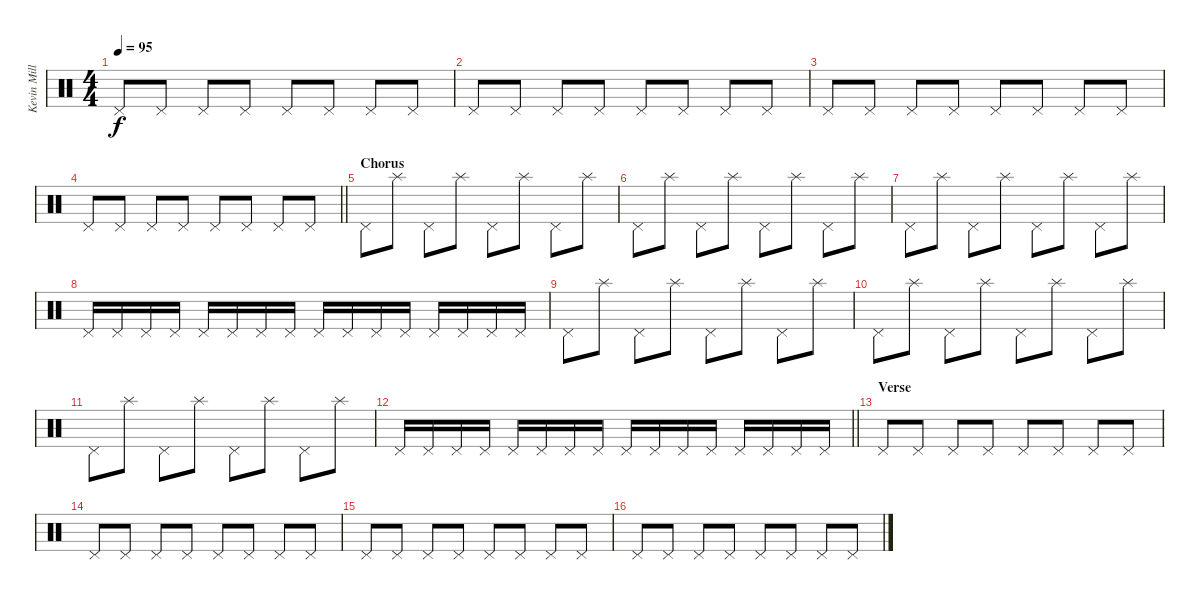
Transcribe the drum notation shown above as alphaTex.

\track ("Kevin Miller (Drums)" "Kevin Mill") {instrument percussion}
\staff {score}
\articulation defaults
\ts (4 4)
\tempo 95
\clef neutral
\ks c "Pedal Hi-Hat (hit)".8{dy f} "Pedal Hi-Hat (hit)".8 "Pedal Hi-Hat (hit)".8 "Pedal Hi-Hat (hit)".8 "Pedal Hi-Hat (hit)".8 "Pedal Hi-Hat (hit)".8 "Pedal Hi-Hat (hit)".8 "Pedal Hi-Hat (hit)".8
|
"Pedal Hi-Hat (hit)".8 "Pedal Hi-Hat (hit)".8 "Pedal Hi-Hat (hit)".8 "Pedal Hi-Hat (hit)".8 "Pedal Hi-Hat (hit)".8 "Pedal Hi-Hat (hit)".8 "Pedal Hi-Hat (hit)".8 "Pedal Hi-Hat (hit)".8 |
"Pedal Hi-Hat (hit)".8 "Pedal Hi-Hat (hit)".8 "Pedal Hi-Hat (hit)".8 "Pedal Hi-Hat (hit)".8 "Pedal Hi-Hat (hit)".8 "Pedal Hi-Hat (hit)".8 "Pedal Hi-Hat (hit)".8 "Pedal Hi-Hat (hit)".8 |
\barLineRight lightlight "Pedal Hi-Hat (hit)".8 "Pedal Hi-Hat (hit)".8 "Pedal Hi-Hat (hit)".8 "Pedal Hi-Hat (hit)".8 "Pedal Hi-Hat (hit)".8 "Pedal Hi-Hat (hit)".8 "Pedal Hi-Hat (hit)".8 "Pedal Hi-Hat (hit)".8
|
\section ("" "Chorus")
"Pedal Hi-Hat (hit)".8 "Splash (hit)".8 "Pedal Hi-Hat (hit)".8 "Splash (hit)".8 "Pedal Hi-Hat (hit)".8 "Splash (hit)".8 "Pedal Hi-Hat (hit)".8 "Splash (hit)".8 |
"Pedal Hi-Hat (hit)".8 "Splash (hit)".8 "Pedal Hi-Hat (hit)".8 "Splash (hit)".8 "Pedal Hi-Hat (hit)".8 "Splash (hit)".8 "Pedal Hi-Hat (hit)".8 "Splash (hit)".8 |
"Pedal Hi-Hat (hit)".8 "Splash (hit)".8 "Pedal Hi-Hat (hit)".8 "Splash (hit)".8 "Pedal Hi-Hat (hit)".8 "Splash (hit)".8 "Pedal Hi-Hat (hit)".8 "Splash (hit)".8 |
"Pedal Hi-Hat (hit)".16 "Pedal Hi-Hat (hit)".16 "Pedal Hi-Hat (hit)".16 "Pedal Hi-Hat (hit)".16 "Pedal Hi-Hat (hit)".16 "Pedal Hi-Hat (hit)".16 "Pedal Hi-Hat (hit)".16 "Pedal Hi-Hat (hit)".16 "Pedal Hi-Hat (hit)".16 "Pedal Hi-Hat (hit)".16 "Pedal Hi-Hat (hit)".16 "Pedal Hi-Hat (hit)".16 "Pedal Hi-Hat (hit)".16 "Pedal Hi-Hat (hit)".16 "Pedal Hi-Hat (hit)".16 "Pedal Hi-Hat (hit)".16 |
"Pedal Hi-Hat (hit)".8 "Splash (hit)".8 "Pedal Hi-Hat (hit)".8 "Splash (hit)".8 "Pedal Hi-Hat (hit)".8 "Splash (hit)".8 "Pedal Hi-Hat (hit)".8 "Splash (hit)".8 |
"Pedal Hi-Hat (hit)".8 "Splash (hit)".8 "Pedal Hi-Hat (hit)".8 "Splash (hit)".8 "Pedal Hi-Hat (hit)".8 "Splash (hit)".8 "Pedal Hi-Hat (hit)".8 "Splash (hit)".8 |
"Pedal Hi-Hat (hit)".8 "Splash (hit)".8 "Pedal Hi-Hat (hit)".8 "Splash (hit)".8 "Pedal Hi-Hat (hit)".8 "Splash (hit)".8 "Pedal Hi-Hat (hit)".8 "Splash (hit)".8 |
\barLineRight lightlight "Pedal Hi-Hat (hit)".16 "Pedal Hi-Hat (hit)".16 "Pedal Hi-Hat (hit)".16 "Pedal Hi-Hat (hit)".16 "Pedal Hi-Hat (hit)".16 "Pedal Hi-Hat (hit)".16 "Pedal Hi-Hat (hit)".16 "Pedal Hi-Hat (hit)".16 "Pedal Hi-Hat (hit)".16 "Pedal Hi-Hat (hit)".16 "Pedal Hi-Hat (hit)".16 "Pedal Hi-Hat (hit)".16 "Pedal Hi-Hat (hit)".16 "Pedal Hi-Hat (hit)".16 "Pedal Hi-Hat (hit)".16 "Pedal Hi-Hat (hit)".16
|
\section ("" "Verse")
"Pedal Hi-Hat (hit)".8 "Pedal Hi-Hat (hit)".8 "Pedal Hi-Hat (hit)".8 "Pedal Hi-Hat (hit)".8 "Pedal Hi-Hat (hit)".8 "Pedal Hi-Hat (hit)".8 "Pedal Hi-Hat (hit)".8 "Pedal Hi-Hat (hit)".8 |
"Pedal Hi-Hat (hit)".8 "Pedal Hi-Hat (hit)".8 "Pedal Hi-Hat (hit)".8 "Pedal Hi-Hat (hit)".8 "Pedal Hi-Hat (hit)".8 "Pedal Hi-Hat (hit)".8 "Pedal Hi-Hat (hit)".8 "Pedal Hi-Hat (hit)".8 |
"Pedal Hi-Hat (hit)".8 "Pedal Hi-Hat (hit)".8 "Pedal Hi-Hat (hit)".8 "Pedal Hi-Hat (hit)".8 "Pedal Hi-Hat (hit)".8 "Pedal Hi-Hat (hit)".8 "Pedal Hi-Hat (hit)".8 "Pedal Hi-Hat (hit)".8 |
"Pedal Hi-Hat (hit)".8 "Pedal Hi-Hat (hit)".8 "Pedal Hi-Hat (hit)".8 "Pedal Hi-Hat (hit)".8 "Pedal Hi-Hat (hit)".8 "Pedal Hi-Hat (hit)".8 "Pedal Hi-Hat (hit)".8 "Pedal Hi-Hat (hit)".8
